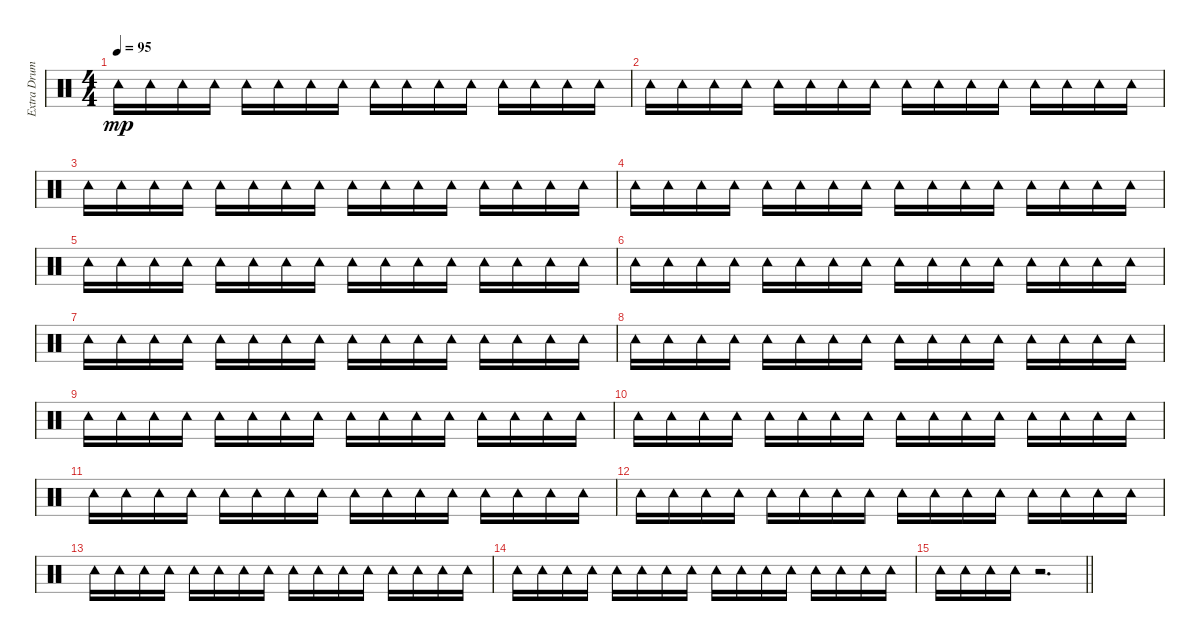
\track ("Extra Drums" "Extra Drum") {instrument percussion}
\staff {score}
\articulation defaults
\ts (4 4)
\tempo 95
\clef neutral
\ks c "Tambourine (hit)".16{dy mp} "Tambourine (hit)".16 "Tambourine (hit)".16 "Tambourine (hit)".16 "Tambourine (hit)".16 "Tambourine (hit)".16 "Tambourine (hit)".16 "Tambourine (hit)".16 "Tambourine (hit)".16 "Tambourine (hit)".16 "Tambourine (hit)".16 "Tambourine (hit)".16 "Tambourine (hit)".16 "Tambourine (hit)".16 "Tambourine (hit)".16 "Tambourine (hit)".16
|
"Tambourine (hit)".16 "Tambourine (hit)".16 "Tambourine (hit)".16 "Tambourine (hit)".16 "Tambourine (hit)".16 "Tambourine (hit)".16 "Tambourine (hit)".16 "Tambourine (hit)".16 "Tambourine (hit)".16 "Tambourine (hit)".16 "Tambourine (hit)".16 "Tambourine (hit)".16 "Tambourine (hit)".16 "Tambourine (hit)".16 "Tambourine (hit)".16 "Tambourine (hit)".16 |
"Tambourine (hit)".16 "Tambourine (hit)".16 "Tambourine (hit)".16 "Tambourine (hit)".16 "Tambourine (hit)".16 "Tambourine (hit)".16 "Tambourine (hit)".16 "Tambourine (hit)".16 "Tambourine (hit)".16 "Tambourine (hit)".16 "Tambourine (hit)".16 "Tambourine (hit)".16 "Tambourine (hit)".16 "Tambourine (hit)".16 "Tambourine (hit)".16 "Tambourine (hit)".16 |
"Tambourine (hit)".16 "Tambourine (hit)".16 "Tambourine (hit)".16 "Tambourine (hit)".16 "Tambourine (hit)".16 "Tambourine (hit)".16 "Tambourine (hit)".16 "Tambourine (hit)".16 "Tambourine (hit)".16 "Tambourine (hit)".16 "Tambourine (hit)".16 "Tambourine (hit)".16 "Tambourine (hit)".16 "Tambourine (hit)".16 "Tambourine (hit)".16 "Tambourine (hit)".16 |
"Tambourine (hit)".16 "Tambourine (hit)".16 "Tambourine (hit)".16 "Tambourine (hit)".16 "Tambourine (hit)".16 "Tambourine (hit)".16 "Tambourine (hit)".16 "Tambourine (hit)".16 "Tambourine (hit)".16 "Tambourine (hit)".16 "Tambourine (hit)".16 "Tambourine (hit)".16 "Tambourine (hit)".16 "Tambourine (hit)".16 "Tambourine (hit)".16 "Tambourine (hit)".16 |
"Tambourine (hit)".16 "Tambourine (hit)".16 "Tambourine (hit)".16 "Tambourine (hit)".16 "Tambourine (hit)".16 "Tambourine (hit)".16 "Tambourine (hit)".16 "Tambourine (hit)".16 "Tambourine (hit)".16 "Tambourine (hit)".16 "Tambourine (hit)".16 "Tambourine (hit)".16 "Tambourine (hit)".16 "Tambourine (hit)".16 "Tambourine (hit)".16 "Tambourine (hit)".16 |
"Tambourine (hit)".16 "Tambourine (hit)".16 "Tambourine (hit)".16 "Tambourine (hit)".16 "Tambourine (hit)".16 "Tambourine (hit)".16 "Tambourine (hit)".16 "Tambourine (hit)".16 "Tambourine (hit)".16 "Tambourine (hit)".16 "Tambourine (hit)".16 "Tambourine (hit)".16 "Tambourine (hit)".16 "Tambourine (hit)".16 "Tambourine (hit)".16 "Tambourine (hit)".16 |
"Tambourine (hit)".16 "Tambourine (hit)".16 "Tambourine (hit)".16 "Tambourine (hit)".16 "Tambourine (hit)".16 "Tambourine (hit)".16 "Tambourine (hit)".16 "Tambourine (hit)".16 "Tambourine (hit)".16 "Tambourine (hit)".16 "Tambourine (hit)".16 "Tambourine (hit)".16 "Tambourine (hit)".16 "Tambourine (hit)".16 "Tambourine (hit)".16 "Tambourine (hit)".16 |
"Tambourine (hit)".16 "Tambourine (hit)".16 "Tambourine (hit)".16 "Tambourine (hit)".16 "Tambourine (hit)".16 "Tambourine (hit)".16 "Tambourine (hit)".16 "Tambourine (hit)".16 "Tambourine (hit)".16 "Tambourine (hit)".16 "Tambourine (hit)".16 "Tambourine (hit)".16 "Tambourine (hit)".16 "Tambourine (hit)".16 "Tambourine (hit)".16 "Tambourine (hit)".16 |
"Tambourine (hit)".16 "Tambourine (hit)".16 "Tambourine (hit)".16 "Tambourine (hit)".16 "Tambourine (hit)".16 "Tambourine (hit)".16 "Tambourine (hit)".16 "Tambourine (hit)".16 "Tambourine (hit)".16 "Tambourine (hit)".16 "Tambourine (hit)".16 "Tambourine (hit)".16 "Tambourine (hit)".16 "Tambourine (hit)".16 "Tambourine (hit)".16 "Tambourine (hit)".16 |
"Tambourine (hit)".16 "Tambourine (hit)".16 "Tambourine (hit)".16 "Tambourine (hit)".16 "Tambourine (hit)".16 "Tambourine (hit)".16 "Tambourine (hit)".16 "Tambourine (hit)".16 "Tambourine (hit)".16 "Tambourine (hit)".16 "Tambourine (hit)".16 "Tambourine (hit)".16 "Tambourine (hit)".16 "Tambourine (hit)".16 "Tambourine (hit)".16 "Tambourine (hit)".16 |
"Tambourine (hit)".16 "Tambourine (hit)".16 "Tambourine (hit)".16 "Tambourine (hit)".16 "Tambourine (hit)".16 "Tambourine (hit)".16 "Tambourine (hit)".16 "Tambourine (hit)".16 "Tambourine (hit)".16 "Tambourine (hit)".16 "Tambourine (hit)".16 "Tambourine (hit)".16 "Tambourine (hit)".16 "Tambourine (hit)".16 "Tambourine (hit)".16 "Tambourine (hit)".16 |
"Tambourine (hit)".16 "Tambourine (hit)".16 "Tambourine (hit)".16 "Tambourine (hit)".16 "Tambourine (hit)".16 "Tambourine (hit)".16 "Tambourine (hit)".16 "Tambourine (hit)".16 "Tambourine (hit)".16 "Tambourine (hit)".16 "Tambourine (hit)".16 "Tambourine (hit)".16 "Tambourine (hit)".16 "Tambourine (hit)".16 "Tambourine (hit)".16 "Tambourine (hit)".16 |
"Tambourine (hit)".16 "Tambourine (hit)".16 "Tambourine (hit)".16 "Tambourine (hit)".16 "Tambourine (hit)".16 "Tambourine (hit)".16 "Tambourine (hit)".16 "Tambourine (hit)".16 "Tambourine (hit)".16 "Tambourine (hit)".16 "Tambourine (hit)".16 "Tambourine (hit)".16 "Tambourine (hit)".16 "Tambourine (hit)".16 "Tambourine (hit)".16 "Tambourine (hit)".16 |
\barLineRight lightlight "Tambourine (hit)".16 "Tambourine (hit)".16 "Tambourine (hit)".16 "Tambourine (hit)".16
r.2{d}
